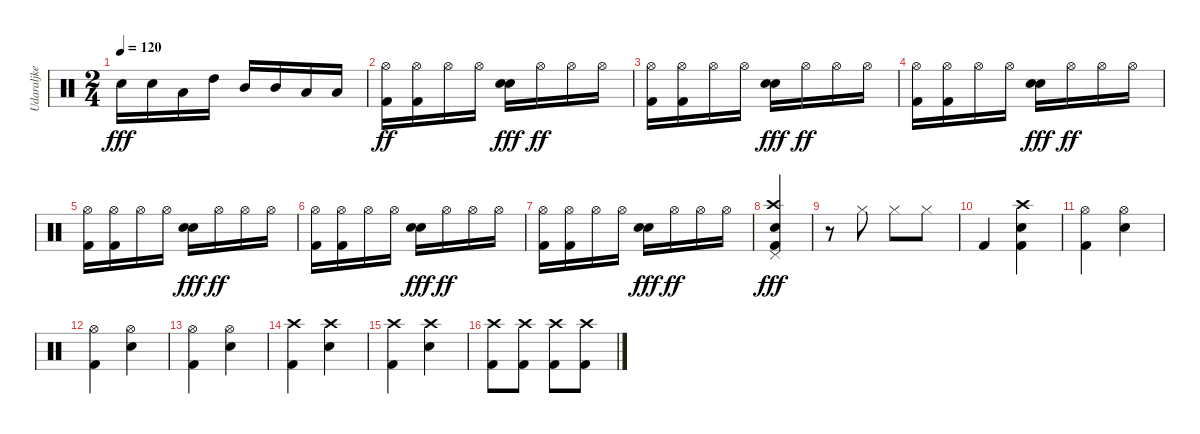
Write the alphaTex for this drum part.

\track ("Udaraljke" "Udaraljke") {instrument percussion}
\staff
\articulation defaults
\ts (2 4)
\tempo 120
\clef neutral
\ks c "Snare (hit) 2".16{dy fff} "Snare (hit) 2".16 "Low Tom (hit)".16 "High Tom (hit)".16 "Mid Tom (hit)".16 "Mid Tom (hit)".16 "Low Tom (hit)".16 "Low Tom (hit)".16
|
("Hi-Hat (open)" "Kick (hit) 2").16{dy ff} ("Hi-Hat (open)" "Kick (hit) 2").16 "Hi-Hat (open)".16 "Hi-Hat (open)".16 ("Snare (hit) 2" "Snare (hit) 2").16{dy fff} "Hi-Hat (open)".16{dy ff} "Hi-Hat (open)".16 "Hi-Hat (open)".16 |
("Hi-Hat (open)" "Kick (hit) 2").16 ("Hi-Hat (open)" "Kick (hit) 2").16 "Hi-Hat (open)".16 "Hi-Hat (open)".16 ("Snare (hit) 2" "Snare (hit) 2").16{dy fff} "Hi-Hat (open)".16{dy ff} "Hi-Hat (open)".16 "Hi-Hat (open)".16 |
("Hi-Hat (open)" "Kick (hit) 2").16 ("Hi-Hat (open)" "Kick (hit) 2").16 "Hi-Hat (open)".16 "Hi-Hat (open)".16 ("Snare (hit) 2" "Snare (hit) 2").16{dy fff} "Hi-Hat (open)".16{dy ff} "Hi-Hat (open)".16 "Hi-Hat (open)".16 |
("Hi-Hat (open)" "Kick (hit) 2").16 ("Hi-Hat (open)" "Kick (hit) 2").16 "Hi-Hat (open)".16 "Hi-Hat (open)".16 ("Snare (hit) 2" "Snare (hit) 2").16{dy fff} "Hi-Hat (open)".16{dy ff} "Hi-Hat (open)".16 "Hi-Hat (open)".16 |
("Hi-Hat (open)" "Kick (hit) 2").16 ("Hi-Hat (open)" "Kick (hit) 2").16 "Hi-Hat (open)".16 "Hi-Hat (open)".16 ("Snare (hit) 2" "Snare (hit) 2").16{dy fff} "Hi-Hat (open)".16{dy ff} "Hi-Hat (open)".16 "Hi-Hat (open)".16 |
("Hi-Hat (open)" "Kick (hit) 2").16 ("Hi-Hat (open)" "Kick (hit) 2").16 "Hi-Hat (open)".16 "Hi-Hat (open)".16 ("Snare (hit) 2" "Snare (hit) 2").16{dy fff} "Hi-Hat (open)".16{dy ff} "Hi-Hat (open)".16 "Hi-Hat (open)".16 |
("Crash high (hit)" "Kick (hit) 2" "Pedal Hi-Hat (hit)" "Snare (hit) 2").4{dy fff} |
r.8 "Hi-Hat (closed)".8 "Hi-Hat (closed)".8 "Hi-Hat (closed)".8 |
"Kick (hit) 2".4 ("Snare (hit) 2" "Crash high (hit)" "Kick (hit) 2").4 |
("Hi-Hat (open)" "Kick (hit) 2").4 ("Hi-Hat (open)" "Snare (hit) 2").4 |
("Hi-Hat (open)" "Kick (hit) 2").4 ("Hi-Hat (open)" "Snare (hit) 2").4 |
("Hi-Hat (open)" "Kick (hit) 2").4 ("Hi-Hat (open)" "Snare (hit) 2").4 |
("Crash high (hit)" "Kick (hit) 2").4 ("Crash high (hit)" "Snare (hit) 2").4 |
("Crash high (hit)" "Kick (hit) 2").4 ("Crash high (hit)" "Snare (hit) 2").4 |
("Crash high (hit)" "Kick (hit) 2").8 ("Crash high (hit)" "Kick (hit) 2").8 ("Crash high (hit)" "Kick (hit) 2").8 ("Crash high (hit)" "Kick (hit) 2").8
